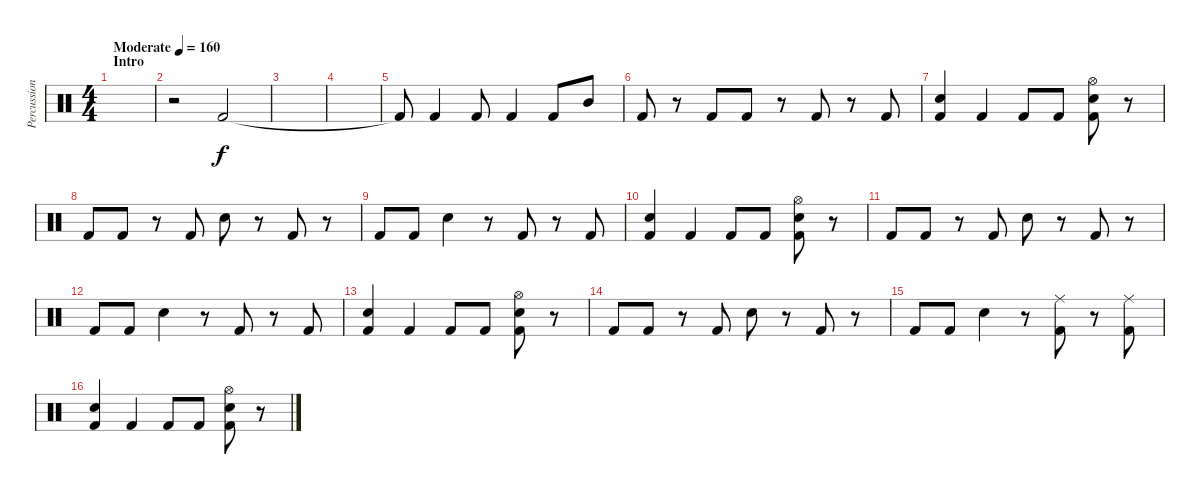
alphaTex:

\track ("Percussion" "Percussion") {instrument percussion}
\staff {score}
\articulation defaults
\ts (4 4)
\section ("" "Intro")
\tempo (160 "Moderate")
\clef neutral
\ks c
|
r.2 "Kick (hit) 2".2 |
|
|
"Kick (hit) 2"{t}.8 "Kick (hit) 2".4 "Kick (hit) 2".8 "Kick (hit) 2".4 "Kick (hit) 2".8 "Mid Tom (hit)".8 |
"Kick (hit) 2".8 r.8 "Kick (hit) 2".8 "Kick (hit) 2".8 r.8 "Kick (hit) 2".8 r.8 "Kick (hit) 2".8 |
("Snare (hit) 2" "Kick (hit) 2").4 "Kick (hit) 2".4 "Kick (hit) 2".8 "Kick (hit) 2".8 ("Hi-Hat (open)" "Snare (hit) 2" "Kick (hit) 2").8 r.8 |
"Kick (hit) 2".8 "Kick (hit) 2".8 r.8 "Kick (hit) 2".8 "Snare (hit) 2".8 r.8 "Kick (hit) 2".8 r.8 |
"Kick (hit) 2".8 "Kick (hit) 2".8 "Snare (hit) 2".4 r.8 "Kick (hit) 2".8 r.8 "Kick (hit) 2".8 |
("Snare (hit) 2" "Kick (hit) 2").4 "Kick (hit) 2".4 "Kick (hit) 2".8 "Kick (hit) 2".8 ("Hi-Hat (open)" "Snare (hit) 2" "Kick (hit) 2").8 r.8 |
"Kick (hit) 2".8 "Kick (hit) 2".8 r.8 "Kick (hit) 2".8 "Snare (hit) 2".8 r.8 "Kick (hit) 2".8 r.8 |
"Kick (hit) 2".8 "Kick (hit) 2".8 "Snare (hit) 2".4 r.8 "Kick (hit) 2".8 r.8 "Kick (hit) 2".8 |
("Snare (hit) 2" "Kick (hit) 2").4 "Kick (hit) 2".4 "Kick (hit) 2".8 "Kick (hit) 2".8 ("Hi-Hat (open)" "Snare (hit) 2" "Kick (hit) 2").8 r.8 |
"Kick (hit) 2".8 "Kick (hit) 2".8 r.8 "Kick (hit) 2".8 "Snare (hit) 2".8 r.8 "Kick (hit) 2".8 r.8 |
"Kick (hit) 2".8 "Kick (hit) 2".8 "Snare (hit) 2".4 r.8 ("Ride (middle)" "Kick (hit) 2").8 r.8 ("Ride (middle)" "Kick (hit) 2").8 |
("Snare (hit) 2" "Kick (hit) 2").4 "Kick (hit) 2".4 "Kick (hit) 2".8 "Kick (hit) 2".8 ("Hi-Hat (open)" "Snare (hit) 2" "Kick (hit) 2").8 r.8
